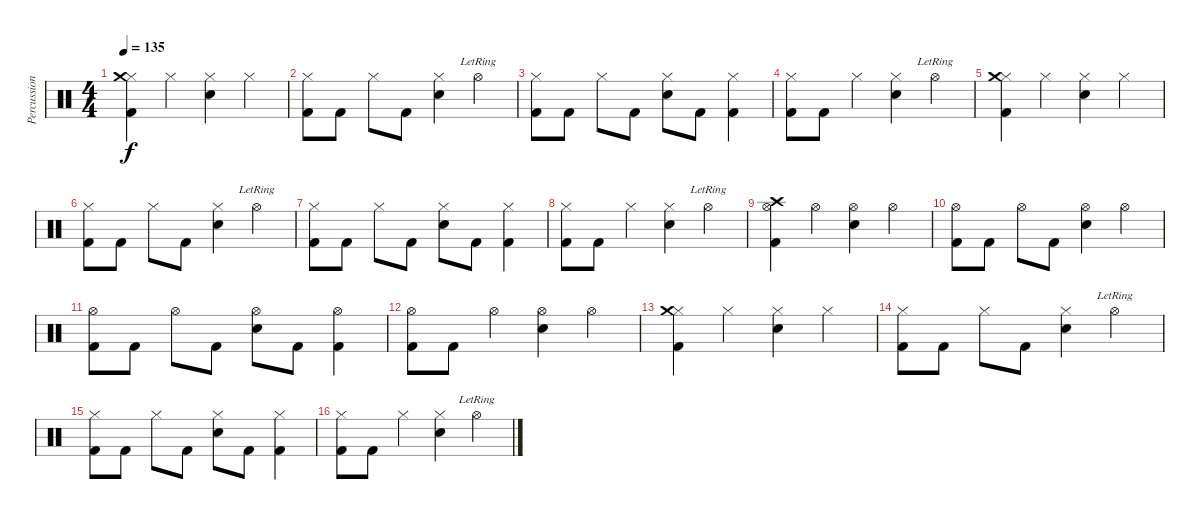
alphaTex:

\track ("Percussion" "Percussion") {instrument percussion}
\staff {score}
\articulation defaults
\ts (4 4)
\tempo 135
\clef neutral
\ks c
("Kick (hit) 2" "Hi-Hat (closed)" "Crash medium (hit)").4{dy f} "Hi-Hat (closed)".4 ("Electric Snare (hit)" "Hi-Hat (closed)").4 "Hi-Hat (closed)".4 |
("Kick (hit) 2" "Hi-Hat (closed)").8 "Kick (hit) 2".8 "Hi-Hat (closed)".8 "Kick (hit) 2".8 ("Electric Snare (hit)" "Hi-Hat (closed)").4 "Hi-Hat (open)"{lr}.4 |
("Kick (hit) 2" "Hi-Hat (closed)").8 "Kick (hit) 2".8 "Hi-Hat (closed)".8 "Kick (hit) 2".8 ("Electric Snare (hit)" "Hi-Hat (closed)").8 "Kick (hit) 2".8 ("Kick (hit) 2" "Hi-Hat (closed)").4 |
("Kick (hit) 2" "Hi-Hat (closed)").8 "Kick (hit) 2".8 "Hi-Hat (closed)".4 ("Electric Snare (hit)" "Hi-Hat (closed)").4 "Hi-Hat (open)"{lr}.4 |
("Kick (hit) 2" "Hi-Hat (closed)" "Crash medium (hit)").4 "Hi-Hat (closed)".4 ("Electric Snare (hit)" "Hi-Hat (closed)").4 "Hi-Hat (closed)".4 |
("Kick (hit) 2" "Hi-Hat (closed)").8 "Kick (hit) 2".8 "Hi-Hat (closed)".8 "Kick (hit) 2".8 ("Electric Snare (hit)" "Hi-Hat (closed)").4 "Hi-Hat (open)"{lr}.4 |
("Kick (hit) 2" "Hi-Hat (closed)").8 "Kick (hit) 2".8 "Hi-Hat (closed)".8 "Kick (hit) 2".8 ("Electric Snare (hit)" "Hi-Hat (closed)").8 "Kick (hit) 2".8 ("Kick (hit) 2" "Hi-Hat (closed)").4 |
("Kick (hit) 2" "Hi-Hat (closed)").8 "Kick (hit) 2".8 "Hi-Hat (closed)".4 ("Electric Snare (hit)" "Hi-Hat (closed)").4 "Hi-Hat (open)"{lr}.4 |
("Kick (hit) 2" "Hi-Hat (open)" "Crash high (hit)").4 "Hi-Hat (open)".4 ("Electric Snare (hit)" "Hi-Hat (open)").4 "Hi-Hat (open)".4 |
("Kick (hit) 2" "Hi-Hat (open)").8 "Kick (hit) 2".8 "Hi-Hat (open)".8 "Kick (hit) 2".8 ("Electric Snare (hit)" "Hi-Hat (open)").4 "Hi-Hat (open)".4 |
("Kick (hit) 2" "Hi-Hat (open)").8 "Kick (hit) 2".8 "Hi-Hat (open)".8 "Kick (hit) 2".8 ("Electric Snare (hit)" "Hi-Hat (open)").8 "Kick (hit) 2".8 ("Kick (hit) 2" "Hi-Hat (open)").4 |
("Kick (hit) 2" "Hi-Hat (open)").8 "Kick (hit) 2".8 "Hi-Hat (open)".4 ("Electric Snare (hit)" "Hi-Hat (open)").4 "Hi-Hat (open)".4 |
("Kick (hit) 2" "Hi-Hat (closed)" "Crash medium (hit)").4 "Hi-Hat (closed)".4 ("Electric Snare (hit)" "Hi-Hat (closed)").4 "Hi-Hat (closed)".4 |
("Kick (hit) 2" "Hi-Hat (closed)").8 "Kick (hit) 2".8 "Hi-Hat (closed)".8 "Kick (hit) 2".8 ("Electric Snare (hit)" "Hi-Hat (closed)").4 "Hi-Hat (open)"{lr}.4 |
("Kick (hit) 2" "Hi-Hat (closed)").8 "Kick (hit) 2".8 "Hi-Hat (closed)".8 "Kick (hit) 2".8 ("Electric Snare (hit)" "Hi-Hat (closed)").8 "Kick (hit) 2".8 ("Kick (hit) 2" "Hi-Hat (closed)").4 |
("Kick (hit) 2" "Hi-Hat (closed)").8 "Kick (hit) 2".8 "Hi-Hat (closed)".4 ("Electric Snare (hit)" "Hi-Hat (closed)").4 "Hi-Hat (open)"{lr}.4
